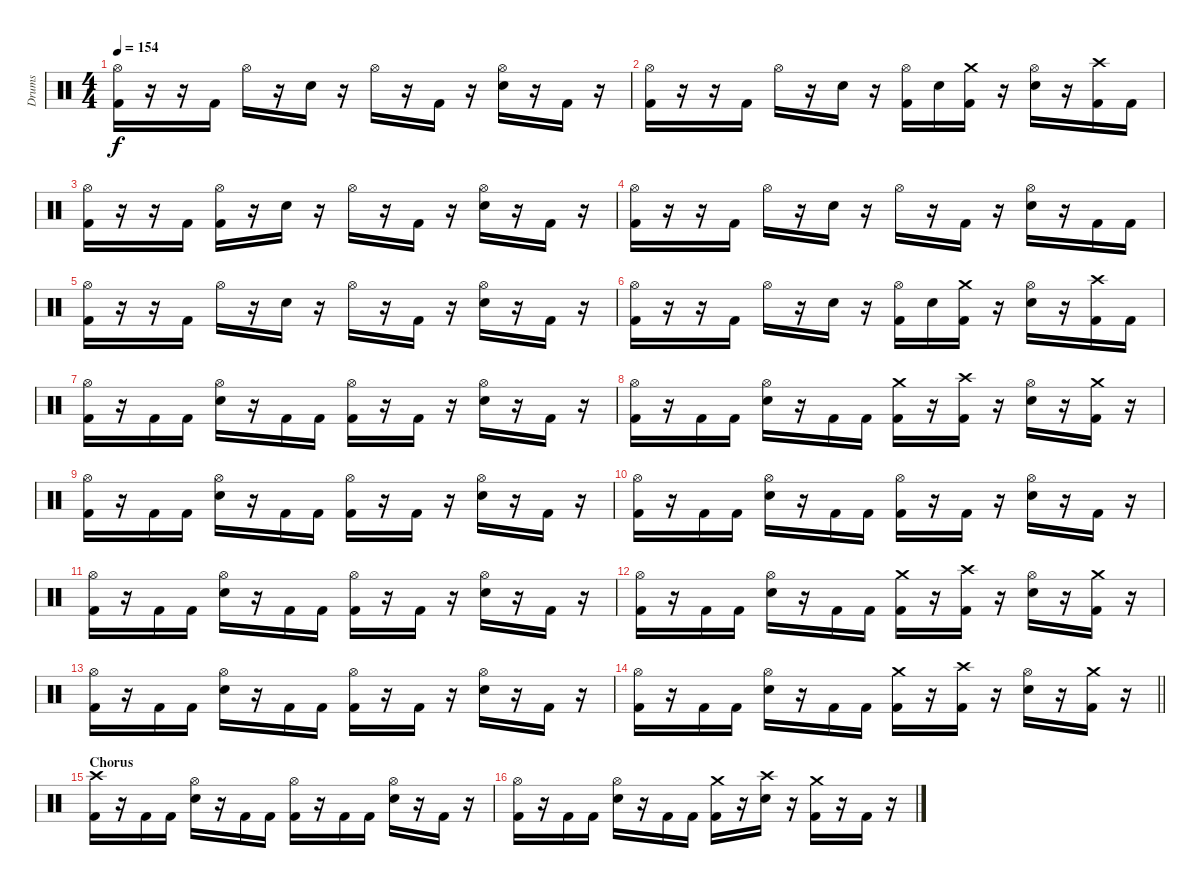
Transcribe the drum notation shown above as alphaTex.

\track ("Drums" "Drums") {instrument percussion}
\staff {score}
\articulation defaults
\ts (4 4)
\tempo 154
\clef neutral
\ks c
("Hi-Hat (open)" "Kick (hit) 2").16{dy f} r.16 r.16 "Kick (hit) 2".16 "Hi-Hat (open)".16 r.16 "Snare (hit) 2".16 r.16 "Hi-Hat (open)".16 r.16 "Kick (hit) 2".16 r.16 ("Hi-Hat (open)" "Snare (hit) 2").16 r.16 "Kick (hit) 2".16 r.16 |
("Hi-Hat (open)" "Kick (hit) 2").16 r.16 r.16 "Kick (hit) 2".16 "Hi-Hat (open)".16 r.16 "Snare (hit) 2".16 r.16 ("Hi-Hat (open)" "Kick (hit) 2").16 "Snare (hit) 2".16 ("Crash medium (hit)" "Kick (hit) 2").16 r.16 ("Hi-Hat (open)" "Snare (hit) 2").16 r.16 ("Crash high (hit)" "Kick (hit) 2").16 "Kick (hit) 2".16 |
("Hi-Hat (open)" "Kick (hit) 2").16 r.16 r.16 "Kick (hit) 2".16 ("Hi-Hat (open)" "Kick (hit) 2").16 r.16 "Snare (hit) 2".16 r.16 "Hi-Hat (open)".16 r.16 "Kick (hit) 2".16 r.16 ("Hi-Hat (open)" "Snare (hit) 2").16 r.16 "Kick (hit) 2".16 r.16 |
("Hi-Hat (open)" "Kick (hit) 2").16 r.16 r.16 "Kick (hit) 2".16 "Hi-Hat (open)".16 r.16 "Snare (hit) 2".16 r.16 "Hi-Hat (open)".16 r.16 "Kick (hit) 2".16 r.16 ("Hi-Hat (open)" "Snare (hit) 2").16 r.16 "Kick (hit) 2".16 "Kick (hit) 2".16 |
("Hi-Hat (open)" "Kick (hit) 2").16 r.16 r.16 "Kick (hit) 2".16 "Hi-Hat (open)".16 r.16 "Snare (hit) 2".16 r.16 "Hi-Hat (open)".16 r.16 "Kick (hit) 2".16 r.16 ("Hi-Hat (open)" "Snare (hit) 2").16 r.16 "Kick (hit) 2".16 r.16 |
("Hi-Hat (open)" "Kick (hit) 2").16 r.16 r.16 "Kick (hit) 2".16 "Hi-Hat (open)".16 r.16 "Snare (hit) 2".16 r.16 ("Hi-Hat (open)" "Kick (hit) 2").16 "Snare (hit) 2".16 ("Crash medium (hit)" "Kick (hit) 2").16 r.16 ("Hi-Hat (open)" "Snare (hit) 2").16 r.16 ("Crash high (hit)" "Kick (hit) 2").16 "Kick (hit) 2".16 |
("Hi-Hat (open)" "Kick (hit) 2").16 r.16 "Kick (hit) 2".16 "Kick (hit) 2".16 ("Hi-Hat (open)" "Snare (hit) 2").16 r.16 "Kick (hit) 2".16 "Kick (hit) 2".16 ("Hi-Hat (open)" "Kick (hit) 2").16 r.16 "Kick (hit) 2".16 r.16 ("Hi-Hat (open)" "Snare (hit) 2").16 r.16 "Kick (hit) 2".16 r.16 |
("Hi-Hat (open)" "Kick (hit) 2").16 r.16 "Kick (hit) 2".16 "Kick (hit) 2".16 ("Hi-Hat (open)" "Snare (hit) 2").16 r.16 "Kick (hit) 2".16 "Kick (hit) 2".16 ("Crash medium (hit)" "Kick (hit) 2").16 r.16 ("Crash high (hit)" "Kick (hit) 2").16 r.16 ("Hi-Hat (open)" "Snare (hit) 2").16 r.16 ("Crash medium (hit)" "Kick (hit) 2").16 r.16 |
("Hi-Hat (open)" "Kick (hit) 2").16 r.16 "Kick (hit) 2".16 "Kick (hit) 2".16 ("Hi-Hat (open)" "Snare (hit) 2").16 r.16 "Kick (hit) 2".16 "Kick (hit) 2".16 ("Hi-Hat (open)" "Kick (hit) 2").16 r.16 "Kick (hit) 2".16 r.16 ("Hi-Hat (open)" "Snare (hit) 2").16 r.16 "Kick (hit) 2".16 r.16 |
("Hi-Hat (open)" "Kick (hit) 2").16 r.16 "Kick (hit) 2".16 "Kick (hit) 2".16 ("Hi-Hat (open)" "Snare (hit) 2").16 r.16 "Kick (hit) 2".16 "Kick (hit) 2".16 ("Hi-Hat (open)" "Kick (hit) 2").16 r.16 "Kick (hit) 2".16 r.16 ("Hi-Hat (open)" "Snare (hit) 2").16 r.16 "Kick (hit) 2".16 r.16 |
("Hi-Hat (open)" "Kick (hit) 2").16 r.16 "Kick (hit) 2".16 "Kick (hit) 2".16 ("Hi-Hat (open)" "Snare (hit) 2").16 r.16 "Kick (hit) 2".16 "Kick (hit) 2".16 ("Hi-Hat (open)" "Kick (hit) 2").16 r.16 "Kick (hit) 2".16 r.16 ("Hi-Hat (open)" "Snare (hit) 2").16 r.16 "Kick (hit) 2".16 r.16 |
("Hi-Hat (open)" "Kick (hit) 2").16 r.16 "Kick (hit) 2".16 "Kick (hit) 2".16 ("Hi-Hat (open)" "Snare (hit) 2").16 r.16 "Kick (hit) 2".16 "Kick (hit) 2".16 ("Crash medium (hit)" "Kick (hit) 2").16 r.16 ("Crash high (hit)" "Kick (hit) 2").16 r.16 ("Hi-Hat (open)" "Snare (hit) 2").16 r.16 ("Crash medium (hit)" "Kick (hit) 2").16 r.16 |
("Hi-Hat (open)" "Kick (hit) 2").16 r.16 "Kick (hit) 2".16 "Kick (hit) 2".16 ("Hi-Hat (open)" "Snare (hit) 2").16 r.16 "Kick (hit) 2".16 "Kick (hit) 2".16 ("Hi-Hat (open)" "Kick (hit) 2").16 r.16 "Kick (hit) 2".16 r.16 ("Hi-Hat (open)" "Snare (hit) 2").16 r.16 "Kick (hit) 2".16 r.16 |
\barLineRight lightlight
("Hi-Hat (open)" "Kick (hit) 2").16 r.16 "Kick (hit) 2".16 "Kick (hit) 2".16 ("Hi-Hat (open)" "Snare (hit) 2").16 r.16 "Kick (hit) 2".16 "Kick (hit) 2".16 ("Crash medium (hit)" "Kick (hit) 2").16 r.16 ("Crash high (hit)" "Kick (hit) 2").16 r.16 ("Hi-Hat (open)" "Snare (hit) 2").16 r.16 ("Crash medium (hit)" "Kick (hit) 2").16 r.16 |
\section ("" "Chorus")
("Crash high (hit)" "Kick (hit) 2").16 r.16 "Kick (hit) 2".16 "Kick (hit) 2".16 ("Hi-Hat (open)" "Snare (hit) 2").16 r.16 "Kick (hit) 2".16 "Kick (hit) 2".16 ("Hi-Hat (open)" "Kick (hit) 2").16 r.16 "Kick (hit) 2".16 "Kick (hit) 2".16 ("Hi-Hat (open)" "Snare (hit) 2").16 r.16 "Kick (hit) 2".16 r.16 |
("Hi-Hat (open)" "Kick (hit) 2").16 r.16 "Kick (hit) 2".16 "Kick (hit) 2".16 ("Hi-Hat (open)" "Snare (hit) 2").16 r.16 "Kick (hit) 2".16 "Kick (hit) 2".16 ("Crash medium (hit)" "Kick (hit) 2").16 r.16 ("Crash high (hit)" "Snare (hit) 2").16 r.16 ("Crash medium (hit)" "Kick (hit) 2").16 r.16 "Kick (hit) 2".16 r.16
